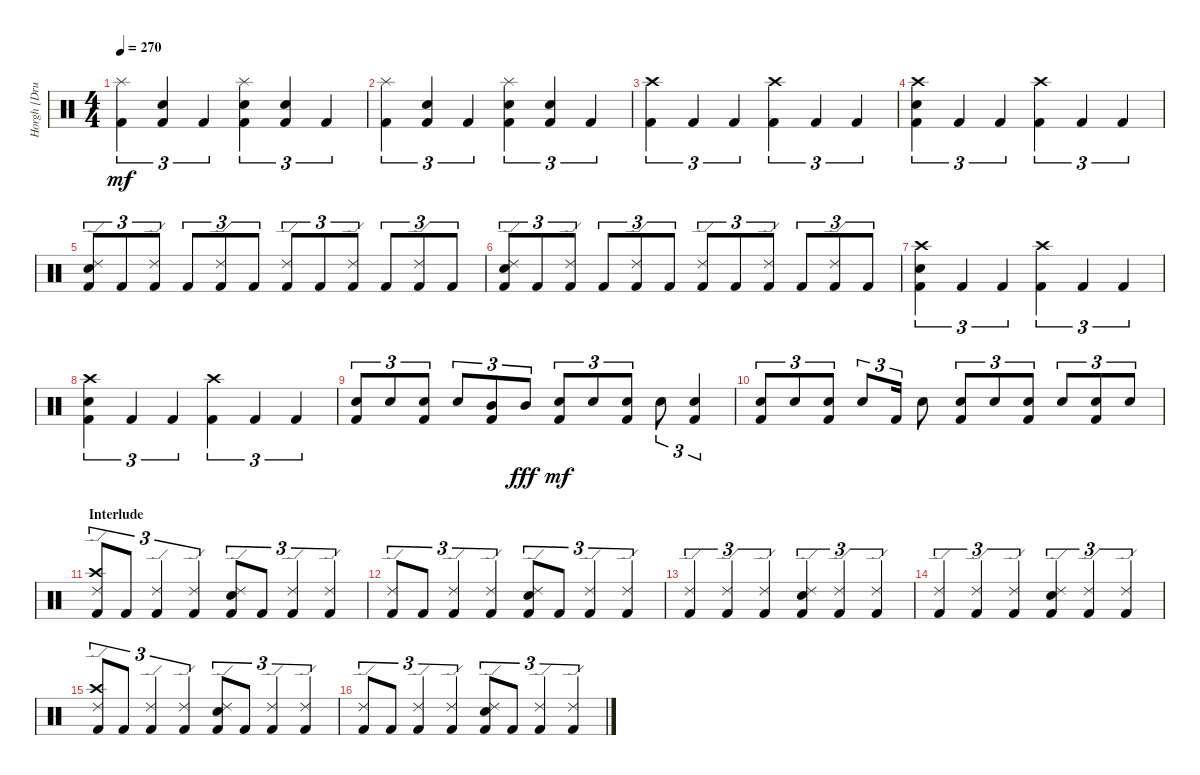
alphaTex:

\track ("Horgh [Drums]" "Horgh [Dru") {instrument percussion}
\staff {score}
\articulation defaults
\ts (4 4)
\tempo 270
\clef neutral
\ks c
("Splash (hit)" "Kick (hit) 2").4{tu (3 2) dy mf} ("Electric Snare (hit)" "Kick (hit) 2").4{tu (3 2)} "Kick (hit) 2".4{tu (3 2)} ("Splash (hit)" "Electric Snare (hit)" "Kick (hit) 2").4{tu (3 2)} ("Electric Snare (hit)" "Kick (hit) 2").4{tu (3 2)} "Kick (hit) 2".4{tu (3 2)} |
("Splash (hit)" "Kick (hit) 2").4{tu (3 2)} ("Electric Snare (hit)" "Kick (hit) 2").4{tu (3 2)} "Kick (hit) 2".4{tu (3 2)} ("Splash (hit)" "Electric Snare (hit)" "Kick (hit) 2").4{tu (3 2)} ("Electric Snare (hit)" "Kick (hit) 2").4{tu (3 2)} "Kick (hit) 2".4{tu (3 2)} |
("Crash high (hit)" "Kick (hit) 2").4{tu (3 2)} "Kick (hit) 2".4{tu (3 2)} "Kick (hit) 2".4{tu (3 2)} ("Crash high (hit)" "Kick (hit) 2").4{tu (3 2)} "Kick (hit) 2".4{tu (3 2)} "Kick (hit) 2".4{tu (3 2)} |
("Crash high (hit)" "Electric Snare (hit)" "Kick (hit) 2").4{tu (3 2)} "Kick (hit) 2".4{tu (3 2)} "Kick (hit) 2".4{tu (3 2)} ("Crash high (hit)" "Kick (hit) 2").4{tu (3 2)} "Kick (hit) 2".4{tu (3 2)} "Kick (hit) 2".4{tu (3 2)} |
("Ride (edge) 2" "Electric Snare (hit)" "Kick (hit) 2").8{tu (3 2)} "Kick (hit) 2".8{tu (3 2)} ("Ride (edge) 2" "Kick (hit) 2").8{tu (3 2)} "Kick (hit) 2".8{tu (3 2)} ("Ride (edge) 2" "Kick (hit) 2").8{tu (3 2)} "Kick (hit) 2".8{tu (3 2)} ("Ride (edge) 2" "Kick (hit) 2").8{tu (3 2)} "Kick (hit) 2".8{tu (3 2)} ("Ride (edge) 2" "Kick (hit) 2").8{tu (3 2)} "Kick (hit) 2".8{tu (3 2)} ("Ride (edge) 2" "Kick (hit) 2").8{tu (3 2)} "Kick (hit) 2".8{tu (3 2)} |
("Ride (edge) 2" "Electric Snare (hit)" "Kick (hit) 2").8{tu (3 2)} "Kick (hit) 2".8{tu (3 2)} ("Ride (edge) 2" "Kick (hit) 2").8{tu (3 2)} "Kick (hit) 2".8{tu (3 2)} ("Ride (edge) 2" "Kick (hit) 2").8{tu (3 2)} "Kick (hit) 2".8{tu (3 2)} ("Ride (edge) 2" "Kick (hit) 2").8{tu (3 2)} "Kick (hit) 2".8{tu (3 2)} ("Ride (edge) 2" "Kick (hit) 2").8{tu (3 2)} "Kick (hit) 2".8{tu (3 2)} ("Ride (edge) 2" "Kick (hit) 2").8{tu (3 2)} "Kick (hit) 2".8{tu (3 2)} |
("Crash high (hit)" "Electric Snare (hit)" "Kick (hit) 2").4{tu (3 2)} "Kick (hit) 2".4{tu (3 2)} "Kick (hit) 2".4{tu (3 2)} ("Crash high (hit)" "Kick (hit) 2").4{tu (3 2)} "Kick (hit) 2".4{tu (3 2)} "Kick (hit) 2".4{tu (3 2)} |
("Crash high (hit)" "Electric Snare (hit)" "Kick (hit) 2").4{tu (3 2)} "Kick (hit) 2".4{tu (3 2)} "Kick (hit) 2".4{tu (3 2)} ("Crash high (hit)" "Kick (hit) 2").4{tu (3 2)} "Kick (hit) 2".4{tu (3 2)} "Kick (hit) 2".4{tu (3 2)} |
("Electric Snare (hit)" "Kick (hit) 2").8{tu (3 2)} "Electric Snare (hit)".8{tu (3 2)} ("Electric Snare (hit)" "Kick (hit) 2").8{tu (3 2)} "Electric Snare (hit)".8{tu (3 2)} ("Mid Tom (hit)" "Kick (hit) 2").8{tu (3 2)} "Mid Tom (hit)".8{tu (3 2) dy fff} ("Electric Snare (hit)" "Kick (hit) 2").8{tu (3 2) dy mf} "Electric Snare (hit)".8{tu (3 2)} ("Electric Snare (hit)" "Kick (hit) 2").8{tu (3 2)} "Electric Snare (hit)".8{tu (3 2)} ("Electric Snare (hit)" "Kick (hit) 2").4{tu (3 2)} |
("Electric Snare (hit)" "Kick (hit) 2").8{tu (3 2)} "Electric Snare (hit)".8{tu (3 2)} ("Electric Snare (hit)" "Kick (hit) 2").8{tu (3 2)} "Electric Snare (hit)".8{tu (3 2)} "Kick (hit) 2".16{tu (3 2)} "Electric Snare (hit)".8 ("Electric Snare (hit)" "Kick (hit) 2").8{tu (3 2)} "Electric Snare (hit)".8{tu (3 2)} ("Electric Snare (hit)" "Kick (hit) 2").8{tu (3 2)} "Electric Snare (hit)".8{tu (3 2)} ("Electric Snare (hit)" "Kick (hit) 2").8{tu (3 2)} "Electric Snare (hit)".8{tu (3 2)} |
\section ("" "Interlude")
("Crash high (hit)" "Ride (edge) 2" "Kick (hit) 2").8{tu (3 2)} "Kick (hit) 2".8{tu (3 2)} ("Ride (edge) 2" "Kick (hit) 2").4{tu (3 2)} ("Ride (edge) 2" "Kick (hit) 2").4{tu (3 2)} ("Ride (edge) 2" "Electric Snare (hit)" "Kick (hit) 2").8{tu (3 2)} "Kick (hit) 2".8{tu (3 2)} ("Ride (edge) 2" "Kick (hit) 2").4{tu (3 2)} ("Ride (edge) 2" "Kick (hit) 2").4{tu (3 2)} |
("Ride (edge) 2" "Kick (hit) 2").8{tu (3 2)} "Kick (hit) 2".8{tu (3 2)} ("Ride (edge) 2" "Kick (hit) 2").4{tu (3 2)} ("Ride (edge) 2" "Kick (hit) 2").4{tu (3 2)} ("Ride (edge) 2" "Electric Snare (hit)" "Kick (hit) 2").8{tu (3 2)} "Kick (hit) 2".8{tu (3 2)} ("Ride (edge) 2" "Kick (hit) 2").4{tu (3 2)} ("Ride (edge) 2" "Kick (hit) 2").4{tu (3 2)} |
("Ride (edge) 2" "Kick (hit) 2").4{tu (3 2)} ("Ride (edge) 2" "Kick (hit) 2").4{tu (3 2)} ("Ride (edge) 2" "Kick (hit) 2").4{tu (3 2)} ("Ride (edge) 2" "Electric Snare (hit)" "Kick (hit) 2").4{tu (3 2)} ("Ride (edge) 2" "Kick (hit) 2").4{tu (3 2)} ("Ride (edge) 2" "Kick (hit) 2").4{tu (3 2)} |
("Ride (edge) 2" "Kick (hit) 2").4{tu (3 2)} ("Ride (edge) 2" "Kick (hit) 2").4{tu (3 2)} ("Ride (edge) 2" "Kick (hit) 2").4{tu (3 2)} ("Ride (edge) 2" "Electric Snare (hit)" "Kick (hit) 2").4{tu (3 2)} ("Ride (edge) 2" "Kick (hit) 2").4{tu (3 2)} ("Ride (edge) 2" "Kick (hit) 2").4{tu (3 2)} |
("Crash high (hit)" "Ride (edge) 2" "Kick (hit) 2").8{tu (3 2)} "Kick (hit) 2".8{tu (3 2)} ("Ride (edge) 2" "Kick (hit) 2").4{tu (3 2)} ("Ride (edge) 2" "Kick (hit) 2").4{tu (3 2)} ("Ride (edge) 2" "Electric Snare (hit)" "Kick (hit) 2").8{tu (3 2)} "Kick (hit) 2".8{tu (3 2)} ("Ride (edge) 2" "Kick (hit) 2").4{tu (3 2)} ("Ride (edge) 2" "Kick (hit) 2").4{tu (3 2)} |
("Ride (edge) 2" "Kick (hit) 2").8{tu (3 2)} "Kick (hit) 2".8{tu (3 2)} ("Ride (edge) 2" "Kick (hit) 2").4{tu (3 2)} ("Ride (edge) 2" "Kick (hit) 2").4{tu (3 2)} ("Ride (edge) 2" "Electric Snare (hit)" "Kick (hit) 2").8{tu (3 2)} "Kick (hit) 2".8{tu (3 2)} ("Ride (edge) 2" "Kick (hit) 2").4{tu (3 2)} ("Ride (edge) 2" "Kick (hit) 2").4{tu (3 2)}
